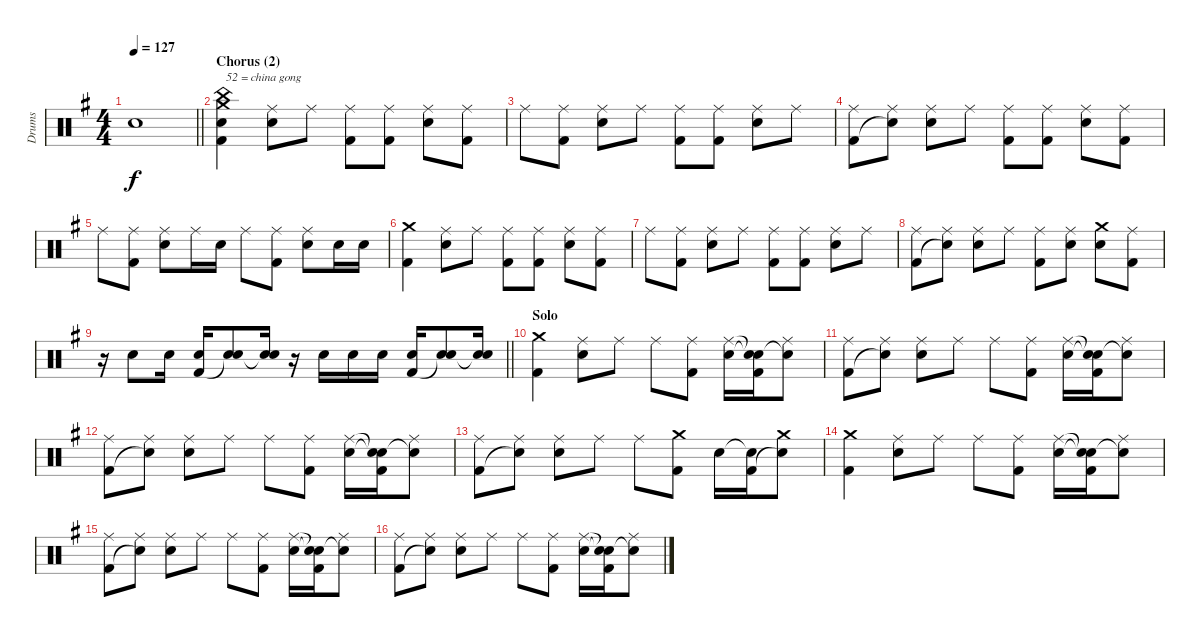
\track ("Drums" "Drums") {instrument percussion}
\staff {score}
\articulation defaults
\ts (4 4)
\tempo 127
\clef neutral
\barLineRight lightlight
\ks eminor "Snare (hit)"{t}.1{dy f}
|
\section ("" "Chorus (2)")
("Crash medium (hit)" "China (hit)" "Electric Snare (hit)" "Kick (hit) 2").4{txt "52 = china gong"} ("Ride (middle)" "Electric Snare (hit)").8 "Ride (middle)".8 ("Ride (middle)" "Kick (hit) 2").8 ("Ride (middle)" "Kick (hit) 2").8 ("Ride (middle)" "Electric Snare (hit)").8 ("Ride (middle)" "Kick (hit) 2").8 |
"Ride (middle)".8 ("Ride (middle)" "Kick (hit) 2").8 ("Ride (middle)" "Electric Snare (hit)").8 "Ride (middle)".8 ("Ride (middle)" "Kick (hit) 2").8 ("Ride (middle)" "Kick (hit) 2").8 ("Ride (middle)" "Electric Snare (hit)").8 "Ride (middle)".8 |
("Ride (middle)" "Kick (hit) 2").8 ("Ride (middle)" "Snare (hit)"{t}).8 ("Ride (middle)" "Electric Snare (hit)").8 "Ride (middle)".8 ("Ride (middle)" "Kick (hit) 2").8 ("Ride (middle)" "Kick (hit) 2").8 ("Ride (middle)" "Electric Snare (hit)").8 ("Ride (middle)" "Kick (hit) 2").8 |
"Ride (middle)".8 ("Ride (middle)" "Kick (hit) 2").8 ("Ride (middle)" "Electric Snare (hit)").8 "Ride (middle)".16 "Electric Snare (hit)".16 "Ride (middle)".8 ("Ride (middle)" "Kick (hit) 2").8 ("Ride (middle)" "Electric Snare (hit)").8 "Electric Snare (hit)".16 "Electric Snare (hit)".16 |
("Crash medium (hit)" "Kick (hit) 2").4 ("Ride (middle)" "Electric Snare (hit)").8 "Ride (middle)".8 ("Ride (middle)" "Kick (hit) 2").8 ("Ride (middle)" "Kick (hit) 2").8 ("Ride (middle)" "Electric Snare (hit)").8 ("Ride (middle)" "Kick (hit) 2").8 |
"Ride (middle)".8 ("Ride (middle)" "Kick (hit) 2").8 ("Ride (middle)" "Electric Snare (hit)").8 "Ride (middle)".8 ("Ride (middle)" "Kick (hit) 2").8 ("Ride (middle)" "Kick (hit) 2").8 ("Ride (middle)" "Electric Snare (hit)").8 "Ride (middle)".8 |
("Ride (middle)" "Kick (hit) 2").8 ("Ride (middle)" "Snare (hit)"{t}).8 ("Ride (middle)" "Electric Snare (hit)").8 "Ride (middle)".8 ("Ride (middle)" "Kick (hit) 2").8 ("Ride (middle)" "Electric Snare (hit)").8 ("Crash medium (hit)" "Electric Snare (hit)").8 ("Ride (middle)" "Kick (hit) 2").8 |
\barLineRight lightlight
r.16 "Electric Snare (hit)".8 "Electric Snare (hit)".16 ("Electric Snare (hit)" "Kick (hit) 2").16 ("Electric Snare (hit)" "Snare (hit)"{t}).8 ("Electric Snare (hit)" "Snare (hit)"{t}).16 r.16 "Electric Snare (hit)".16 "Electric Snare (hit)".16 "Electric Snare (hit)".16 ("Electric Snare (hit)" "Kick (hit) 2").16 ("Electric Snare (hit)" "Snare (hit)"{t}).8 ("Electric Snare (hit)" "Snare (hit)"{t}).16 |
\section ("" "Solo")
("Crash medium (hit)" "Kick (hit) 2").4 ("Ride (middle)" "Electric Snare (hit)").8 "Ride (middle)".8 "Ride (middle)".8 ("Ride (middle)" "Kick (hit) 2").8 ("Ride (middle)" "Electric Snare (hit)").16 ("Snare (hit)"{t} "Snare (hit)"{t} "Kick (hit) 2").16 ("Ride (middle)" "Snare (hit)"{t}).8 |
("Ride (middle)" "Kick (hit) 2").8 ("Ride (middle)" "Snare (hit)"{t}).8 ("Ride (middle)" "Electric Snare (hit)").8 "Ride (middle)".8 "Ride (middle)".8 ("Ride (middle)" "Kick (hit) 2").8 ("Ride (middle)" "Electric Snare (hit)").16 ("Snare (hit)"{t} "Snare (hit)"{t} "Kick (hit) 2").16 ("Ride (middle)" "Snare (hit)"{t}).8 |
("Ride (middle)" "Kick (hit) 2").8 ("Ride (middle)" "Snare (hit)"{t}).8 ("Ride (middle)" "Electric Snare (hit)").8 "Ride (middle)".8 "Ride (middle)".8 ("Ride (middle)" "Kick (hit) 2").8 ("Ride (middle)" "Electric Snare (hit)").16 ("Snare (hit)"{t} "Snare (hit)"{t} "Kick (hit) 2").16 ("Ride (middle)" "Snare (hit)"{t}).8 |
("Ride (middle)" "Kick (hit) 2").8 ("Ride (middle)" "Snare (hit)"{t}).8 ("Ride (middle)" "Electric Snare (hit)").8 "Ride (middle)".8 "Ride (middle)".8 ("Crash medium (hit)" "Kick (hit) 2").8 "Electric Snare (hit)".16 ("Snare (hit)"{t} "Kick (hit) 2").16 ("Crash medium (hit)" "Snare (hit)"{t}).8 |
("Crash medium (hit)" "Kick (hit) 2").4 ("Ride (middle)" "Electric Snare (hit)").8 "Ride (middle)".8 "Ride (middle)".8 ("Ride (middle)" "Kick (hit) 2").8 ("Ride (middle)" "Electric Snare (hit)").16 ("Snare (hit)"{t} "Snare (hit)"{t} "Kick (hit) 2").16 ("Ride (middle)" "Snare (hit)"{t}).8 |
("Ride (middle)" "Kick (hit) 2").8 ("Ride (middle)" "Snare (hit)"{t}).8 ("Ride (middle)" "Electric Snare (hit)").8 "Ride (middle)".8 "Ride (middle)".8 ("Ride (middle)" "Kick (hit) 2").8 ("Ride (middle)" "Electric Snare (hit)").16 ("Snare (hit)"{t} "Snare (hit)"{t} "Kick (hit) 2").16 ("Ride (middle)" "Snare (hit)"{t}).8 |
("Ride (middle)" "Kick (hit) 2").8 ("Ride (middle)" "Snare (hit)"{t}).8 ("Ride (middle)" "Electric Snare (hit)").8 "Ride (middle)".8 "Ride (middle)".8 ("Ride (middle)" "Kick (hit) 2").8 ("Ride (middle)" "Electric Snare (hit)").16 ("Snare (hit)"{t} "Snare (hit)"{t} "Kick (hit) 2").16 ("Ride (middle)" "Snare (hit)"{t}).8
